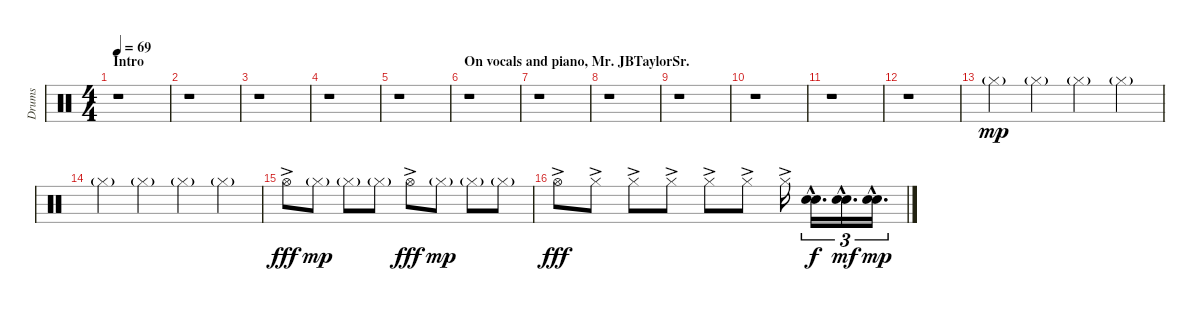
\track ("Drums" "Drums") {instrument percussion}
\staff {score}
\articulation defaults
\ts (4 4)
\section ("" "Intro")
\tempo 69
\clef neutral
\ks c
r.1{dy mp volume 14} |
r.1 |
r.1 |
r.1 |
r.1 |
\section ("" "On vocals and piano, Mr. JBTaylorSr.")
r.1 |
r.1 |
r.1 |
r.1 |
r.1 |
r.1 |
r.1 |
"Hi-Hat (closed)"{g}.4 "Hi-Hat (closed)"{g}.4 "Hi-Hat (closed)"{g}.4 "Hi-Hat (closed)"{g}.4 |
"Hi-Hat (closed)"{g}.4 "Hi-Hat (closed)"{g}.4 "Hi-Hat (closed)"{g}.4 "Hi-Hat (closed)"{g}.4 |
"Hi-Hat (open)"{ac}.8{dy fff} "Hi-Hat (closed)"{g}.8{dy mp} "Hi-Hat (closed)"{g}.8 "Hi-Hat (closed)"{g}.8 "Hi-Hat (open)"{ac}.8{dy fff} "Hi-Hat (closed)"{g}.8{dy mp} "Hi-Hat (closed)"{g}.8 "Hi-Hat (closed)"{g}.8 |
"Hi-Hat (open)"{ac}.8{dy fff} "Hi-Hat (closed)"{ac}.8 "Hi-Hat (closed)"{ac}.8 "Hi-Hat (closed)"{ac}.8 "Hi-Hat (closed)"{ac}.8 "Hi-Hat (closed)"{ac}.8 "Hi-Hat (closed)"{ac}.16 ("Snare (hit) 2"{hac} "Electric Snare (hit)"{hac}).16{d tu (3 2) dy f} ("Snare (hit) 2"{hac} "Electric Snare (hit)"{hac}).16{d tu (3 2) dy mf} ("Snare (hit) 2"{hac} "Electric Snare (hit)"{hac}).16{d tu (3 2) dy mp}
